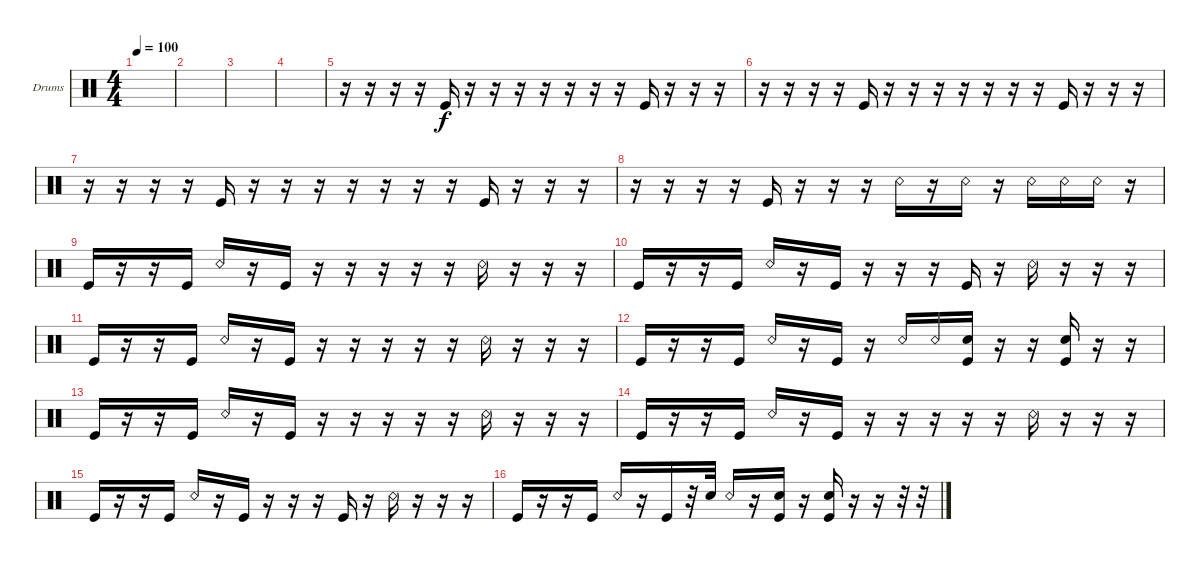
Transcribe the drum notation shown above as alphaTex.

\defaultSystemsLayout 4
\bracketExtendMode groupsimilarinstruments
\firstSystemTrackNameOrientation horizontal
\otherSystemsTrackNameOrientation horizontal
\track ("Drumkit" "Drums") {instrument percussion}
\staff {score}
\articulation defaults
\ts (4 4)
\tempo 100
\clef neutral
\scale
0.474178
\ks c
|
\scale
0.262911 |
\scale
0.262911 |
\scale
0.333333 |
\scale
0.333333 r.16 r.16 r.16 r.16 "Kick (hit)".16 r.16 r.16 r.16 r.16 r.16 r.16 r.16 "Kick (hit)".16 r.16 r.16 r.16 |
\scale
0.333333 r.16 r.16 r.16 r.16 "Kick (hit)".16 r.16 r.16 r.16 r.16 r.16 r.16 r.16 "Kick (hit)".16 r.16 r.16 r.16 |
r.16 r.16 r.16 r.16 "Kick (hit)".16 r.16 r.16 r.16 r.16 r.16 r.16 r.16 "Kick (hit)".16 r.16 r.16 r.16 |
r.16 r.16 r.16 r.16 "Kick (hit)".16 r.16 r.16 r.16 "Snare (rim shot)".16 r.16 "Snare (rim shot)".16 r.16 "Snare (rim shot)".16 "Snare (rim shot)".16 "Snare (rim shot)".16 r.16 |
"Kick (hit)".16 r.16 r.16 "Kick (hit)".16 "Snare (rim shot)".16 r.16 "Kick (hit)".16 r.16 r.16 r.16 r.16 r.16 "Snare (rim shot)".16 r.16 r.16 r.16 |
"Kick (hit)".16 r.16 r.16 "Kick (hit)".16 "Snare (rim shot)".16 r.16 "Kick (hit)".16 r.16 r.16 r.16 "Kick (hit)".16 r.16 "Snare (rim shot)".16 r.16 r.16 r.16 |
"Kick (hit)".16 r.16 r.16 "Kick (hit)".16 "Snare (rim shot)".16 r.16 "Kick (hit)".16 r.16 r.16 r.16 r.16 r.16 "Snare (rim shot)".16 r.16 r.16 r.16 |
"Kick (hit)".16 r.16 r.16 "Kick (hit)".16 "Snare (rim shot)".16 r.16 "Kick (hit)".16 r.16 "Snare (rim shot)".16 "Snare (rim shot)".16 ("Kick (hit)" "Snare (hit) 2").16 r.16 r.16 ("Kick (hit)" "Snare (hit) 2").16 r.16 r.16 |
"Kick (hit)".16 r.16 r.16 "Kick (hit)".16 "Snare (rim shot)".16 r.16 "Kick (hit)".16 r.16 r.16 r.16 r.16 r.16 "Snare (rim shot)".16 r.16 r.16 r.16 |
"Kick (hit)".16 r.16 r.16 "Kick (hit)".16 "Snare (rim shot)".16 r.16 "Kick (hit)".16 r.16 r.16 r.16 r.16 r.16 "Snare (rim shot)".16 r.16 r.16 r.16 |
"Kick (hit)".16 r.16 r.16 "Kick (hit)".16 "Snare (rim shot)".16 r.16 "Kick (hit)".16 r.16 r.16 r.16 "Kick (hit)".16 r.16 "Snare (rim shot)".16 r.16 r.16 r.16 |
"Kick (hit)".16 r.16 r.16 "Kick (hit)".16 "Snare (rim shot)".16 r.16 "Kick (hit)".16 r.32 "Snare (hit) 2".32 "Snare (rim shot)".16 r.16 ("Kick (hit)" "Snare (hit) 2").16 r.16 ("Kick (hit)" "Snare (hit) 2").16 r.16 r.16 r.32 r.32
